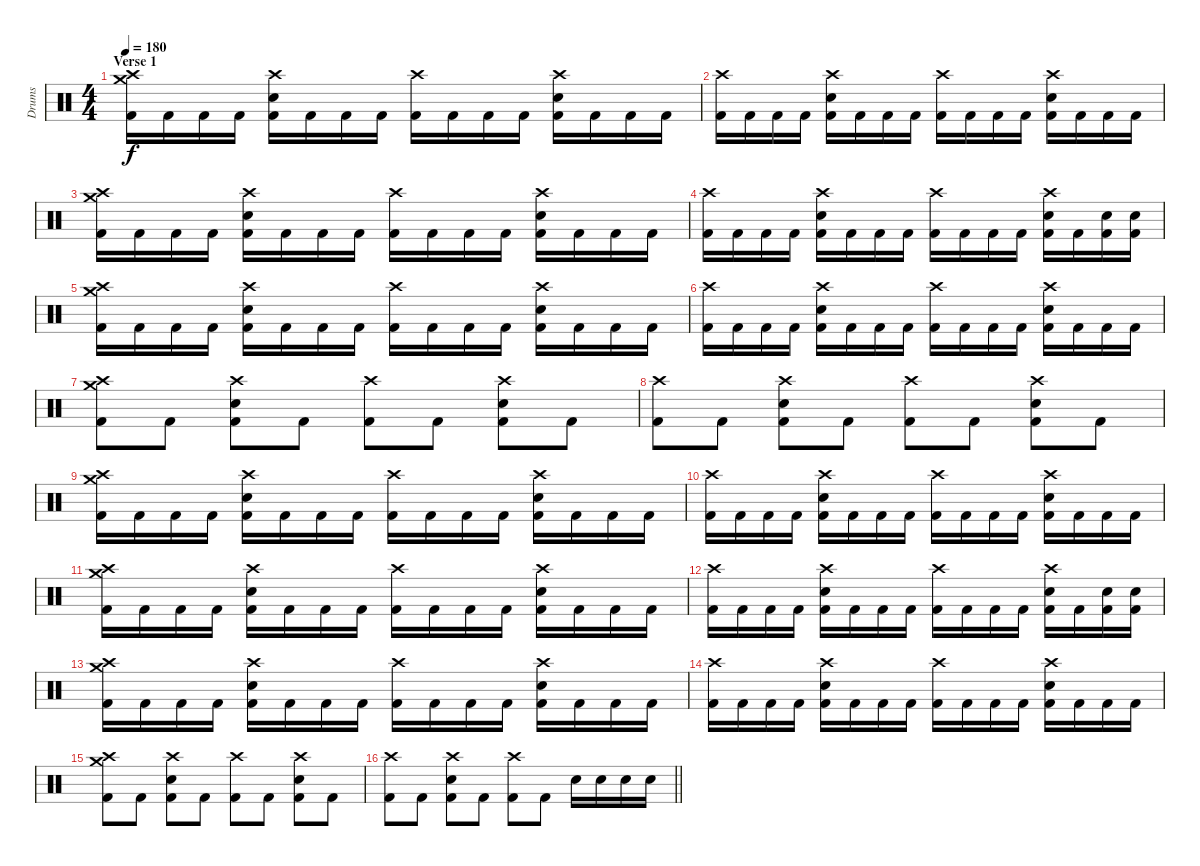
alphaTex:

\track ("Drums" "Drums") {instrument percussion}
\staff {score}
\articulation defaults
\ts (4 4)
\section ("" "Verse 1")
\tempo 180
\clef neutral
\ks c
("Crash medium (hit)" "Crash high (hit)" "Kick (hit) 2").16{dy f} "Kick (hit) 2".16 "Kick (hit) 2".16 "Kick (hit) 2".16 ("Crash high (hit)" "Electric Snare (hit)" "Kick (hit) 2").16 "Kick (hit) 2".16 "Kick (hit) 2".16 "Kick (hit) 2".16 ("Crash high (hit)" "Kick (hit) 2").16 "Kick (hit) 2".16 "Kick (hit) 2".16 "Kick (hit) 2".16 ("Crash high (hit)" "Electric Snare (hit)" "Kick (hit) 2").16 "Kick (hit) 2".16 "Kick (hit) 2".16 "Kick (hit) 2".16 |
("Crash high (hit)" "Kick (hit) 2").16 "Kick (hit) 2".16 "Kick (hit) 2".16 "Kick (hit) 2".16 ("Crash high (hit)" "Electric Snare (hit)" "Kick (hit) 2").16 "Kick (hit) 2".16 "Kick (hit) 2".16 "Kick (hit) 2".16 ("Crash high (hit)" "Kick (hit) 2").16 "Kick (hit) 2".16 "Kick (hit) 2".16 "Kick (hit) 2".16 ("Crash high (hit)" "Electric Snare (hit)" "Kick (hit) 2").16 "Kick (hit) 2".16 "Kick (hit) 2".16 "Kick (hit) 2".16 |
("Crash medium (hit)" "Crash high (hit)" "Kick (hit) 2").16 "Kick (hit) 2".16 "Kick (hit) 2".16 "Kick (hit) 2".16 ("Crash high (hit)" "Electric Snare (hit)" "Kick (hit) 2").16 "Kick (hit) 2".16 "Kick (hit) 2".16 "Kick (hit) 2".16 ("Crash high (hit)" "Kick (hit) 2").16 "Kick (hit) 2".16 "Kick (hit) 2".16 "Kick (hit) 2".16 ("Crash high (hit)" "Electric Snare (hit)" "Kick (hit) 2").16 "Kick (hit) 2".16 "Kick (hit) 2".16 "Kick (hit) 2".16 |
("Crash high (hit)" "Kick (hit) 2").16 "Kick (hit) 2".16 "Kick (hit) 2".16 "Kick (hit) 2".16 ("Crash high (hit)" "Electric Snare (hit)" "Kick (hit) 2").16 "Kick (hit) 2".16 "Kick (hit) 2".16 "Kick (hit) 2".16 ("Crash high (hit)" "Kick (hit) 2").16 "Kick (hit) 2".16 "Kick (hit) 2".16 "Kick (hit) 2".16 ("Crash high (hit)" "Electric Snare (hit)" "Kick (hit) 2").16 "Kick (hit) 2".16 ("Electric Snare (hit)" "Kick (hit) 2").16 ("Electric Snare (hit)" "Kick (hit) 2").16 |
("Crash medium (hit)" "Crash high (hit)" "Kick (hit) 2").16 "Kick (hit) 2".16 "Kick (hit) 2".16 "Kick (hit) 2".16 ("Crash high (hit)" "Electric Snare (hit)" "Kick (hit) 2").16 "Kick (hit) 2".16 "Kick (hit) 2".16 "Kick (hit) 2".16 ("Crash high (hit)" "Kick (hit) 2").16 "Kick (hit) 2".16 "Kick (hit) 2".16 "Kick (hit) 2".16 ("Crash high (hit)" "Electric Snare (hit)" "Kick (hit) 2").16 "Kick (hit) 2".16 "Kick (hit) 2".16 "Kick (hit) 2".16 |
("Crash high (hit)" "Kick (hit) 2").16 "Kick (hit) 2".16 "Kick (hit) 2".16 "Kick (hit) 2".16 ("Crash high (hit)" "Electric Snare (hit)" "Kick (hit) 2").16 "Kick (hit) 2".16 "Kick (hit) 2".16 "Kick (hit) 2".16 ("Crash high (hit)" "Kick (hit) 2").16 "Kick (hit) 2".16 "Kick (hit) 2".16 "Kick (hit) 2".16 ("Crash high (hit)" "Electric Snare (hit)" "Kick (hit) 2").16 "Kick (hit) 2".16 "Kick (hit) 2".16 "Kick (hit) 2".16 |
("Crash high (hit)" "Crash medium (hit)" "Kick (hit) 2").8 "Kick (hit) 2".8 ("Crash high (hit)" "Electric Snare (hit)" "Kick (hit) 2").8 "Kick (hit) 2".8 ("Crash high (hit)" "Kick (hit) 2").8 "Kick (hit) 2".8 ("Crash high (hit)" "Electric Snare (hit)" "Kick (hit) 2").8 "Kick (hit) 2".8 |
("Crash high (hit)" "Kick (hit) 2").8 "Kick (hit) 2".8 ("Crash high (hit)" "Electric Snare (hit)" "Kick (hit) 2").8 "Kick (hit) 2".8 ("Crash high (hit)" "Kick (hit) 2").8 "Kick (hit) 2".8 ("Crash high (hit)" "Electric Snare (hit)" "Kick (hit) 2").8 "Kick (hit) 2".8 |
("Crash medium (hit)" "Crash high (hit)" "Kick (hit) 2").16 "Kick (hit) 2".16 "Kick (hit) 2".16 "Kick (hit) 2".16 ("Crash high (hit)" "Electric Snare (hit)" "Kick (hit) 2").16 "Kick (hit) 2".16 "Kick (hit) 2".16 "Kick (hit) 2".16 ("Crash high (hit)" "Kick (hit) 2").16 "Kick (hit) 2".16 "Kick (hit) 2".16 "Kick (hit) 2".16 ("Crash high (hit)" "Electric Snare (hit)" "Kick (hit) 2").16 "Kick (hit) 2".16 "Kick (hit) 2".16 "Kick (hit) 2".16 |
("Crash high (hit)" "Kick (hit) 2").16 "Kick (hit) 2".16 "Kick (hit) 2".16 "Kick (hit) 2".16 ("Crash high (hit)" "Electric Snare (hit)" "Kick (hit) 2").16 "Kick (hit) 2".16 "Kick (hit) 2".16 "Kick (hit) 2".16 ("Crash high (hit)" "Kick (hit) 2").16 "Kick (hit) 2".16 "Kick (hit) 2".16 "Kick (hit) 2".16 ("Crash high (hit)" "Electric Snare (hit)" "Kick (hit) 2").16 "Kick (hit) 2".16 "Kick (hit) 2".16 "Kick (hit) 2".16 |
("Crash medium (hit)" "Crash high (hit)" "Kick (hit) 2").16 "Kick (hit) 2".16 "Kick (hit) 2".16 "Kick (hit) 2".16 ("Crash high (hit)" "Electric Snare (hit)" "Kick (hit) 2").16 "Kick (hit) 2".16 "Kick (hit) 2".16 "Kick (hit) 2".16 ("Crash high (hit)" "Kick (hit) 2").16 "Kick (hit) 2".16 "Kick (hit) 2".16 "Kick (hit) 2".16 ("Crash high (hit)" "Electric Snare (hit)" "Kick (hit) 2").16 "Kick (hit) 2".16 "Kick (hit) 2".16 "Kick (hit) 2".16 |
("Crash high (hit)" "Kick (hit) 2").16 "Kick (hit) 2".16 "Kick (hit) 2".16 "Kick (hit) 2".16 ("Crash high (hit)" "Electric Snare (hit)" "Kick (hit) 2").16 "Kick (hit) 2".16 "Kick (hit) 2".16 "Kick (hit) 2".16 ("Crash high (hit)" "Kick (hit) 2").16 "Kick (hit) 2".16 "Kick (hit) 2".16 "Kick (hit) 2".16 ("Crash high (hit)" "Electric Snare (hit)" "Kick (hit) 2").16 "Kick (hit) 2".16 ("Electric Snare (hit)" "Kick (hit) 2").16 ("Electric Snare (hit)" "Kick (hit) 2").16 |
("Crash medium (hit)" "Crash high (hit)" "Kick (hit) 2").16 "Kick (hit) 2".16 "Kick (hit) 2".16 "Kick (hit) 2".16 ("Crash high (hit)" "Electric Snare (hit)" "Kick (hit) 2").16 "Kick (hit) 2".16 "Kick (hit) 2".16 "Kick (hit) 2".16 ("Crash high (hit)" "Kick (hit) 2").16 "Kick (hit) 2".16 "Kick (hit) 2".16 "Kick (hit) 2".16 ("Crash high (hit)" "Electric Snare (hit)" "Kick (hit) 2").16 "Kick (hit) 2".16 "Kick (hit) 2".16 "Kick (hit) 2".16 |
("Crash high (hit)" "Kick (hit) 2").16 "Kick (hit) 2".16 "Kick (hit) 2".16 "Kick (hit) 2".16 ("Crash high (hit)" "Electric Snare (hit)" "Kick (hit) 2").16 "Kick (hit) 2".16 "Kick (hit) 2".16 "Kick (hit) 2".16 ("Crash high (hit)" "Kick (hit) 2").16 "Kick (hit) 2".16 "Kick (hit) 2".16 "Kick (hit) 2".16 ("Crash high (hit)" "Electric Snare (hit)" "Kick (hit) 2").16 "Kick (hit) 2".16 "Kick (hit) 2".16 "Kick (hit) 2".16 |
("Crash high (hit)" "Crash medium (hit)" "Kick (hit) 2").8 "Kick (hit) 2".8 ("Crash high (hit)" "Electric Snare (hit)" "Kick (hit) 2").8 "Kick (hit) 2".8 ("Crash high (hit)" "Kick (hit) 2").8 "Kick (hit) 2".8 ("Crash high (hit)" "Electric Snare (hit)" "Kick (hit) 2").8 "Kick (hit) 2".8 |
\barLineRight lightlight
("Crash high (hit)" "Kick (hit) 2").8 "Kick (hit) 2".8 ("Crash high (hit)" "Electric Snare (hit)" "Kick (hit) 2").8 "Kick (hit) 2".8 ("Crash high (hit)" "Kick (hit) 2").8 "Kick (hit) 2".8 "Electric Snare (hit)".16 "Electric Snare (hit)".16 "Electric Snare (hit)".16 "Electric Snare (hit)".16
